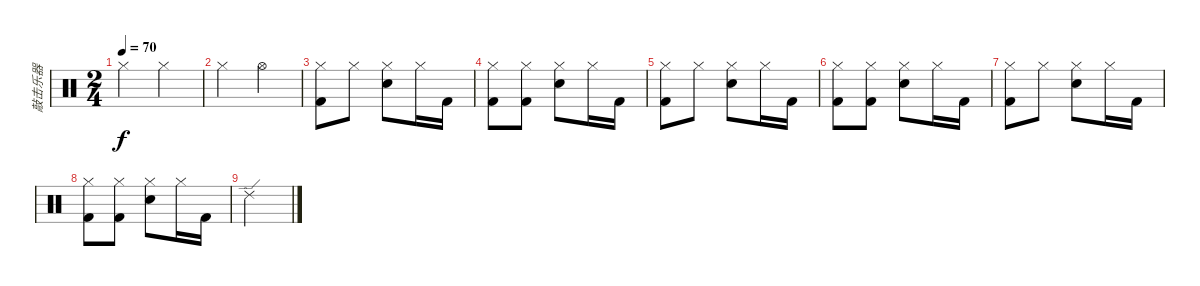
\track ("敲击乐器" "敲击乐器") {instrument percussion}
\staff {score}
\articulation defaults
\ts (2 4)
\tempo 70
\clef neutral
\ks c "Hi-Hat (closed)".4{dy f} "Hi-Hat (closed)".4
|
"Hi-Hat (closed)".4 "Hi-Hat (open)".4 |
("Hi-Hat (closed)" "Kick (hit) 2").8 "Hi-Hat (closed)".8 ("Hi-Hat (closed)" "Snare (hit) 2").8 "Hi-Hat (closed)".16 "Kick (hit) 2".16 |
("Hi-Hat (closed)" "Kick (hit) 2").8 ("Hi-Hat (closed)" "Kick (hit) 2").8 ("Hi-Hat (closed)" "Snare (hit) 2").8 "Hi-Hat (closed)".16 "Kick (hit) 2".16 |
("Hi-Hat (closed)" "Kick (hit) 2").8 "Hi-Hat (closed)".8 ("Hi-Hat (closed)" "Snare (hit) 2").8 "Hi-Hat (closed)".16 "Kick (hit) 2".16 |
("Hi-Hat (closed)" "Kick (hit) 2").8 ("Hi-Hat (closed)" "Kick (hit) 2").8 ("Hi-Hat (closed)" "Snare (hit) 2").8 "Hi-Hat (closed)".16 "Kick (hit) 2".16 |
("Hi-Hat (closed)" "Kick (hit) 2").8 "Hi-Hat (closed)".8 ("Hi-Hat (closed)" "Snare (hit) 2").8 "Hi-Hat (closed)".16 "Kick (hit) 2".16 |
("Hi-Hat (closed)" "Kick (hit) 2").8 ("Hi-Hat (closed)" "Kick (hit) 2").8 ("Hi-Hat (closed)" "Snare (hit) 2").8 "Hi-Hat (closed)".16 "Kick (hit) 2".16 |
"Ride (edge) 2".2
